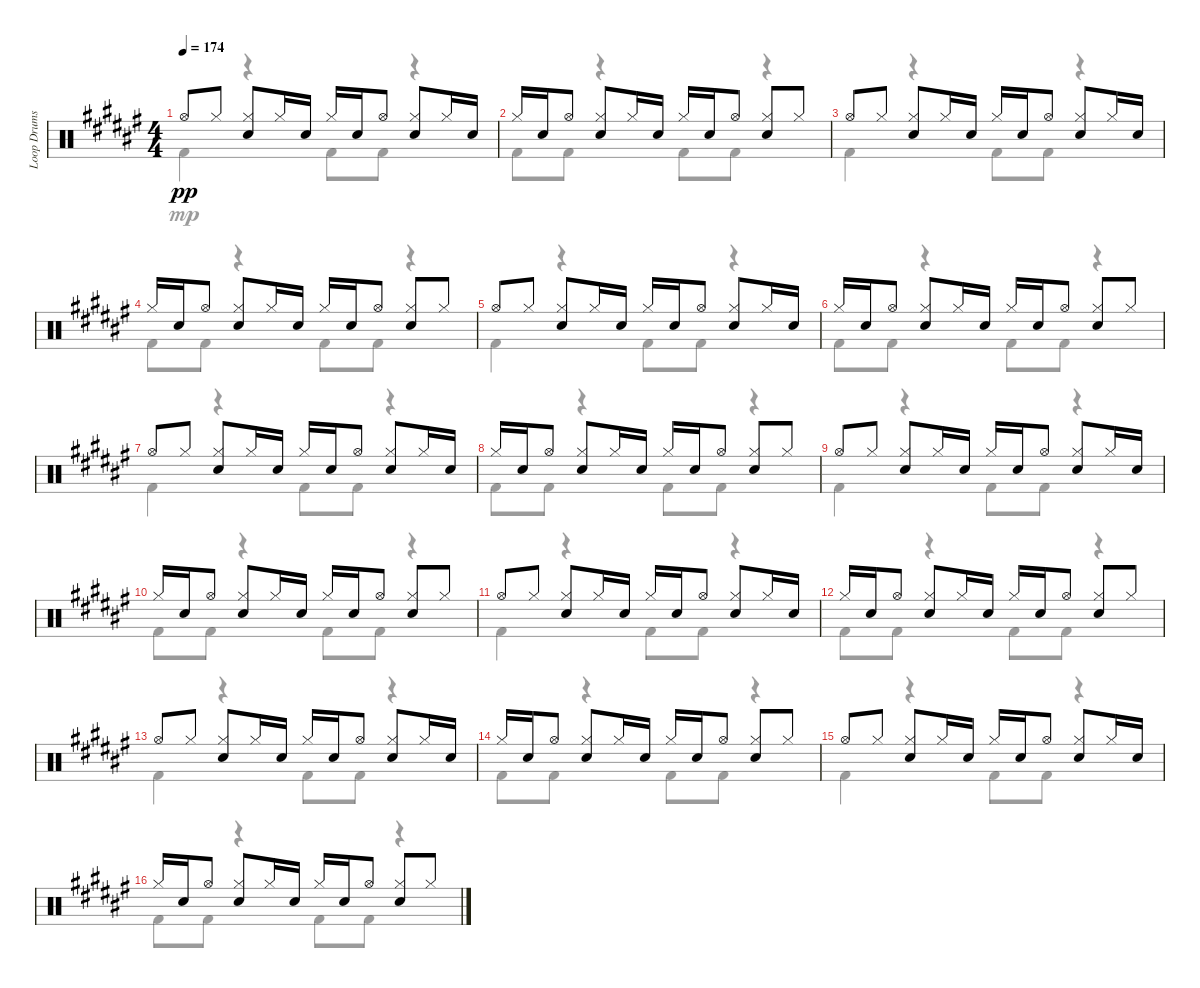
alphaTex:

\track ("Loop Drums" "Loop Drums") {instrument percussion}
\staff {score}
\articulation defaults
\voice
\ts (4 4)
\tempo 174
\clef neutral
\ks f# "Hi-Hat (open)".8{dy pp} "Hi-Hat (closed)".8
("Hi-Hat (closed)" "Electric Snare (hit)").8 "Hi-Hat (closed)".16 "Electric Snare (hit)".16 "Hi-Hat (closed)".16 "Electric Snare (hit)".16 "Hi-Hat (open)".8 ("Hi-Hat (closed)" "Electric Snare (hit)").8 "Hi-Hat (closed)".16 "Electric Snare (hit)".16 |
"Hi-Hat (closed)".16 "Electric Snare (hit)".16 "Hi-Hat (open)".8 ("Hi-Hat (closed)" "Electric Snare (hit)").8 "Hi-Hat (closed)".16 "Electric Snare (hit)".16 "Hi-Hat (closed)".16 "Electric Snare (hit)".16 "Hi-Hat (open)".8 ("Hi-Hat (closed)" "Electric Snare (hit)").8 "Hi-Hat (closed)".8 |
"Hi-Hat (open)".8 "Hi-Hat (closed)".8 ("Hi-Hat (closed)" "Electric Snare (hit)").8 "Hi-Hat (closed)".16 "Electric Snare (hit)".16 "Hi-Hat (closed)".16 "Electric Snare (hit)".16 "Hi-Hat (open)".8 ("Hi-Hat (closed)" "Electric Snare (hit)").8 "Hi-Hat (closed)".16 "Electric Snare (hit)".16 |
"Hi-Hat (closed)".16 "Electric Snare (hit)".16 "Hi-Hat (open)".8 ("Hi-Hat (closed)" "Electric Snare (hit)").8 "Hi-Hat (closed)".16 "Electric Snare (hit)".16 "Hi-Hat (closed)".16 "Electric Snare (hit)".16 "Hi-Hat (open)".8 ("Hi-Hat (closed)" "Electric Snare (hit)").8 "Hi-Hat (closed)".8 |
"Hi-Hat (open)".8 "Hi-Hat (closed)".8 ("Hi-Hat (closed)" "Electric Snare (hit)").8 "Hi-Hat (closed)".16 "Electric Snare (hit)".16 "Hi-Hat (closed)".16 "Electric Snare (hit)".16 "Hi-Hat (open)".8 ("Hi-Hat (closed)" "Electric Snare (hit)").8 "Hi-Hat (closed)".16 "Electric Snare (hit)".16 |
"Hi-Hat (closed)".16 "Electric Snare (hit)".16 "Hi-Hat (open)".8 ("Hi-Hat (closed)" "Electric Snare (hit)").8 "Hi-Hat (closed)".16 "Electric Snare (hit)".16 "Hi-Hat (closed)".16 "Electric Snare (hit)".16 "Hi-Hat (open)".8 ("Hi-Hat (closed)" "Electric Snare (hit)").8 "Hi-Hat (closed)".8 |
"Hi-Hat (open)".8 "Hi-Hat (closed)".8 ("Hi-Hat (closed)" "Electric Snare (hit)").8 "Hi-Hat (closed)".16 "Electric Snare (hit)".16 "Hi-Hat (closed)".16 "Electric Snare (hit)".16 "Hi-Hat (open)".8 ("Hi-Hat (closed)" "Electric Snare (hit)").8 "Hi-Hat (closed)".16 "Electric Snare (hit)".16 |
"Hi-Hat (closed)".16 "Electric Snare (hit)".16 "Hi-Hat (open)".8 ("Hi-Hat (closed)" "Electric Snare (hit)").8 "Hi-Hat (closed)".16 "Electric Snare (hit)".16 "Hi-Hat (closed)".16 "Electric Snare (hit)".16 "Hi-Hat (open)".8 ("Hi-Hat (closed)" "Electric Snare (hit)").8 "Hi-Hat (closed)".8 |
"Hi-Hat (open)".8 "Hi-Hat (closed)".8 ("Hi-Hat (closed)" "Electric Snare (hit)").8 "Hi-Hat (closed)".16 "Electric Snare (hit)".16 "Hi-Hat (closed)".16 "Electric Snare (hit)".16 "Hi-Hat (open)".8 ("Hi-Hat (closed)" "Electric Snare (hit)").8 "Hi-Hat (closed)".16 "Electric Snare (hit)".16 |
"Hi-Hat (closed)".16 "Electric Snare (hit)".16 "Hi-Hat (open)".8 ("Hi-Hat (closed)" "Electric Snare (hit)").8 "Hi-Hat (closed)".16 "Electric Snare (hit)".16 "Hi-Hat (closed)".16 "Electric Snare (hit)".16 "Hi-Hat (open)".8 ("Hi-Hat (closed)" "Electric Snare (hit)").8 "Hi-Hat (closed)".8 |
"Hi-Hat (open)".8 "Hi-Hat (closed)".8 ("Hi-Hat (closed)" "Electric Snare (hit)").8 "Hi-Hat (closed)".16 "Electric Snare (hit)".16 "Hi-Hat (closed)".16 "Electric Snare (hit)".16 "Hi-Hat (open)".8 ("Hi-Hat (closed)" "Electric Snare (hit)").8 "Hi-Hat (closed)".16 "Electric Snare (hit)".16 |
"Hi-Hat (closed)".16 "Electric Snare (hit)".16 "Hi-Hat (open)".8 ("Hi-Hat (closed)" "Electric Snare (hit)").8 "Hi-Hat (closed)".16 "Electric Snare (hit)".16 "Hi-Hat (closed)".16 "Electric Snare (hit)".16 "Hi-Hat (open)".8 ("Hi-Hat (closed)" "Electric Snare (hit)").8 "Hi-Hat (closed)".8 |
"Hi-Hat (open)".8 "Hi-Hat (closed)".8 ("Hi-Hat (closed)" "Electric Snare (hit)").8 "Hi-Hat (closed)".16 "Electric Snare (hit)".16 "Hi-Hat (closed)".16 "Electric Snare (hit)".16 "Hi-Hat (open)".8 ("Hi-Hat (closed)" "Electric Snare (hit)").8 "Hi-Hat (closed)".16 "Electric Snare (hit)".16 |
"Hi-Hat (closed)".16 "Electric Snare (hit)".16 "Hi-Hat (open)".8 ("Hi-Hat (closed)" "Electric Snare (hit)").8 "Hi-Hat (closed)".16 "Electric Snare (hit)".16 "Hi-Hat (closed)".16 "Electric Snare (hit)".16 "Hi-Hat (open)".8 ("Hi-Hat (closed)" "Electric Snare (hit)").8 "Hi-Hat (closed)".8 |
"Hi-Hat (open)".8 "Hi-Hat (closed)".8 ("Hi-Hat (closed)" "Electric Snare (hit)").8 "Hi-Hat (closed)".16 "Electric Snare (hit)".16 "Hi-Hat (closed)".16 "Electric Snare (hit)".16 "Hi-Hat (open)".8 ("Hi-Hat (closed)" "Electric Snare (hit)").8 "Hi-Hat (closed)".16 "Electric Snare (hit)".16 |
"Hi-Hat (closed)".16 "Electric Snare (hit)".16 "Hi-Hat (open)".8 ("Hi-Hat (closed)" "Electric Snare (hit)").8 "Hi-Hat (closed)".16 "Electric Snare (hit)".16 "Hi-Hat (closed)".16 "Electric Snare (hit)".16 "Hi-Hat (open)".8 ("Hi-Hat (closed)" "Electric Snare (hit)").8 "Hi-Hat (closed)".8
\voice
\clef neutral
\ottava regular
\simile none
\ks f# "Kick (hit) 2".4{dy mp}
r.4 "Kick (hit) 2".8 "Kick (hit) 2".8 r.4 |
"Kick (hit) 2".8 "Kick (hit) 2".8 r.4 "Kick (hit) 2".8 "Kick (hit) 2".8 r.4 |
"Kick (hit) 2".4 r.4 "Kick (hit) 2".8 "Kick (hit) 2".8 r.4 |
"Kick (hit) 2".8 "Kick (hit) 2".8 r.4 "Kick (hit) 2".8 "Kick (hit) 2".8 r.4 |
"Kick (hit) 2".4 r.4 "Kick (hit) 2".8 "Kick (hit) 2".8 r.4 |
"Kick (hit) 2".8 "Kick (hit) 2".8 r.4 "Kick (hit) 2".8 "Kick (hit) 2".8 r.4 |
"Kick (hit) 2".4 r.4 "Kick (hit) 2".8 "Kick (hit) 2".8 r.4 |
"Kick (hit) 2".8 "Kick (hit) 2".8 r.4 "Kick (hit) 2".8 "Kick (hit) 2".8 r.4 |
"Kick (hit) 2".4 r.4 "Kick (hit) 2".8 "Kick (hit) 2".8 r.4 |
"Kick (hit) 2".8 "Kick (hit) 2".8 r.4 "Kick (hit) 2".8 "Kick (hit) 2".8 r.4 |
"Kick (hit) 2".4 r.4 "Kick (hit) 2".8 "Kick (hit) 2".8 r.4 |
"Kick (hit) 2".8 "Kick (hit) 2".8 r.4 "Kick (hit) 2".8 "Kick (hit) 2".8 r.4 |
"Kick (hit) 2".4 r.4 "Kick (hit) 2".8 "Kick (hit) 2".8 r.4 |
"Kick (hit) 2".8 "Kick (hit) 2".8 r.4 "Kick (hit) 2".8 "Kick (hit) 2".8 r.4 |
"Kick (hit) 2".4 r.4 "Kick (hit) 2".8 "Kick (hit) 2".8 r.4 |
"Kick (hit) 2".8 "Kick (hit) 2".8 r.4 "Kick (hit) 2".8 "Kick (hit) 2".8 r.4
